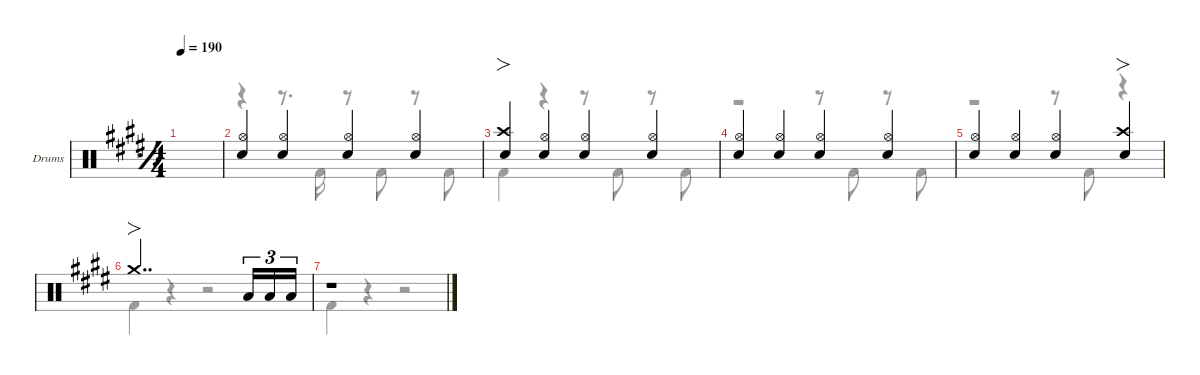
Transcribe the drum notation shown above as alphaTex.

\defaultSystemsLayout 4
\hideDynamics
\bracketExtendMode nobrackets
\firstSystemTrackNameOrientation horizontal
\track ("Drums" "Drums") {defaultSystemsLayout 4 instrument percussion}
\staff {score}
\articulation defaults
\voice
\ts (4 4)
\tempo 190
\clef neutral
\simile simple
\ks e
|
("Snare (hit) 2"{acc forcenatural} "Hi-Hat (open)"{acc forcenatural}).4 ("Snare (hit) 2"{acc forcenatural} "Hi-Hat (open)"{acc forcenatural}).4 ("Snare (hit) 2"{acc forcenatural} "Hi-Hat (open)"{acc forcenatural}).4 ("Snare (hit) 2"{acc forcenatural} "Hi-Hat (open)"{acc forcenatural}).4 |
("Crash high (hit)"{acc forcenatural} "Snare (hit) 2"{acc forcenatural}).4{fo} ("Snare (hit) 2"{acc forcenatural} "Hi-Hat (open)"{acc forcenatural}).4 ("Snare (hit) 2"{acc forcenatural} "Hi-Hat (open)"{acc forcenatural}).4 ("Snare (hit) 2"{acc forcenatural} "Hi-Hat (open)"{acc forcenatural}).4 |
("Snare (hit) 2"{acc forcenatural} "Hi-Hat (open)"{acc forcenatural}).4 ("Snare (hit) 2"{acc forcenatural} "Hi-Hat (open)"{acc forcenatural}).4 ("Snare (hit) 2"{acc forcenatural} "Hi-Hat (open)"{acc forcenatural}).4 ("Snare (hit) 2"{acc forcenatural} "Hi-Hat (open)"{acc forcenatural}).4 |
("Snare (hit) 2"{acc forcenatural} "Hi-Hat (open)"{acc forcenatural}).4 ("Snare (hit) 2"{acc forcenatural} "Hi-Hat (open)"{acc forcenatural}).4 ("Snare (hit) 2"{acc forcenatural} "Hi-Hat (open)"{acc forcenatural}).4 ("Snare (hit) 2"{acc forcenatural} "Crash high (hit)"{acc forcenatural}).4{fo} |
"Crash medium (hit)"{acc forcenatural}.2{fo dd} "Low Tom (hit)"{acc forcenatural}.16{tu (3 2)} "Low Tom (hit)"{acc forcenatural}.16{tu (3 2)} "Low Tom (hit)"{acc forcenatural}.16{tu (3 2)} |
r.1
\voice
\clef neutral
\ottava regular
\simile simple
\ks e
|
\simile none
r.4 r.8{d} "Kick (hit) 2"{acc forcenatural}.16 r.8 "Kick (hit) 2"{acc forcenatural}.8 r.8 "Kick (hit) 2"{acc forcenatural}.8 |
"Kick (hit) 2"{acc forcenatural}.4 r.4 r.8 "Kick (hit) 2"{acc forcenatural}.8 r.8 "Kick (hit) 2"{acc forcenatural}.8 |
r.2 r.8 "Kick (hit) 2"{acc forcenatural}.8 r.8 "Kick (hit) 2"{acc forcenatural}.8 |
r.2 r.8 "Kick (hit) 2"{acc forcenatural}.8 r.4 |
"Kick (hit) 2"{acc forcenatural}.4 r.4 r.2 |
"Kick (hit) 2"{acc forcenatural}.4 r.4 r.2
